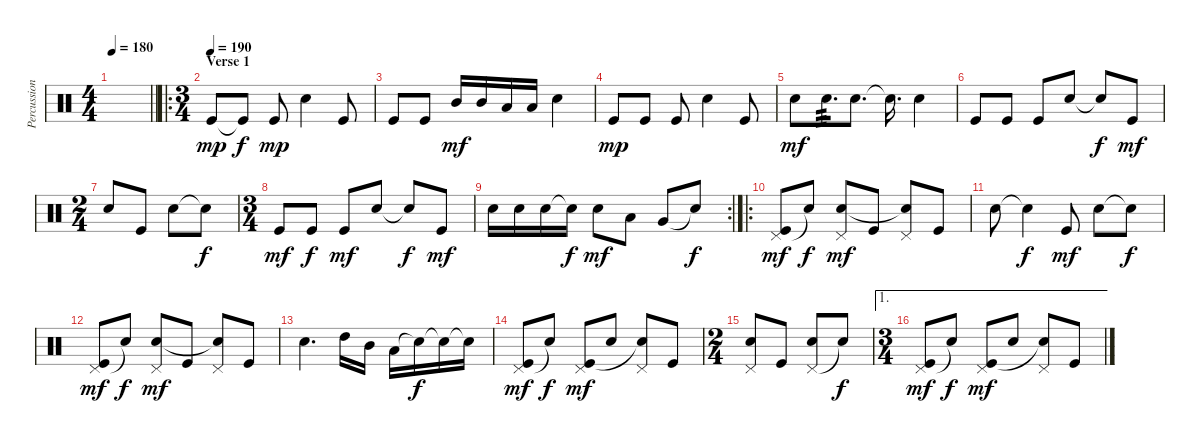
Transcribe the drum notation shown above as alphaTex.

\track ("Percussion" "Percussion") {instrument percussion}
\staff {score}
\articulation defaults
\ts (4 4)
\tempo 180
\clef neutral
\barLineRight lightlight
\ks c
|
\ro
\ts (3 4)
\section ("" "Verse 1")
\tempo (190)
"Kick (hit)".8{dy mp} "Kick (hit)"{t}.8{dy f} "Kick (hit)".8{dy mp} "Electric Snare (hit)".4 "Kick (hit)".8 |
"Kick (hit)".8 "Kick (hit)".8 "Mid Tom (hit)".16{dy mf} "Mid Tom (hit)".16 "Low Tom (hit)".16 "Low Tom (hit)".16 "Electric Snare (hit)".4 |
"Kick (hit)".8{dy mp} "Kick (hit)".8 "Kick (hit)".8 "Electric Snare (hit)".4 "Kick (hit)".8 |
"Electric Snare (hit)".8{dy mf} "Electric Snare (hit)".16{d tp 3} "Electric Snare (hit)".8{d} "Snare (hit)"{t}.16{d} "Electric Snare (hit)".4 |
"Kick (hit)".8 "Kick (hit)".8 "Kick (hit)".8 "Electric Snare (hit)".8 "Snare (hit)"{t}.8{dy f} "Kick (hit)".8{dy mf} |
\ts (2 4)
"Electric Snare (hit)".8 "Kick (hit)".8 "Electric Snare (hit)".8 "Snare (hit)"{t}.8{dy f} |
\ts (3 4)
"Kick (hit)".8{dy mf} "Kick (hit)".8{dy f} "Kick (hit)".8{dy mf} "Electric Snare (hit)".8 "Snare (hit)"{t}.8{dy f} "Kick (hit)".8{dy mf} |
\rc 2 "Electric Snare (hit)".16 "Electric Snare (hit)".16 "Electric Snare (hit)".16 "Snare (hit)"{t}.16{dy f} "Electric Snare (hit)".8{dy mf} "Low Tom (hit)".8 "Very Low Tom (hit)".8 "Snare (hit)"{t}.8{dy f}
|
\ro
("Pedal Hi-Hat (hit)" "Kick (hit)").8{dy mf} "Snare (hit)"{t}.8{dy f} ("Pedal Hi-Hat (hit)" "Electric Snare (hit)").8{dy mf} "Kick (hit)".8 ("Pedal Hi-Hat (hit)" "Snare (hit)"{t}).8 "Kick (hit)".8 |
"Electric Snare (hit)".8 "Snare (hit)"{t}.4{dy f} "Kick (hit)".8{dy mf} "Electric Snare (hit)".8 "Snare (hit)"{t}.8{dy f} |
("Pedal Hi-Hat (hit)" "Kick (hit)").8{dy mf} "Snare (hit)"{t}.8{dy f} ("Pedal Hi-Hat (hit)" "Electric Snare (hit)").8{dy mf} "Kick (hit)".8 ("Pedal Hi-Hat (hit)" "Snare (hit)"{t}).8 "Kick (hit)".8 |
"Electric Snare (hit)".4{d} "High Tom (hit)".16 "Mid Tom (hit)".16 "Low Tom (hit)".16 "Snare (hit)"{t}.16{dy f} "Snare (hit)"{t}.16 "Snare (hit)"{t}.16 |
("Pedal Hi-Hat (hit)" "Kick (hit)").8{dy mf} "Snare (hit)"{t}.8{dy f} ("Pedal Hi-Hat (hit)" "Kick (hit)").8{dy mf} "Electric Snare (hit)".8 ("Pedal Hi-Hat (hit)" "Snare (hit)"{t}).8 "Kick (hit)".8 |
\ts (2 4)
("Pedal Hi-Hat (hit)" "Electric Snare (hit)").8 "Kick (hit)".8 ("Pedal Hi-Hat (hit)" "Electric Snare (hit)").8 "Snare (hit)"{t}.8{dy f} |
\ae 1
\ts (3 4)
("Pedal Hi-Hat (hit)" "Kick (hit)").8{dy mf} "Snare (hit)"{t}.8{dy f} ("Pedal Hi-Hat (hit)" "Kick (hit)").8{dy mf} "Electric Snare (hit)".8 ("Pedal Hi-Hat (hit)" "Snare (hit)"{t}).8 "Kick (hit)".8
